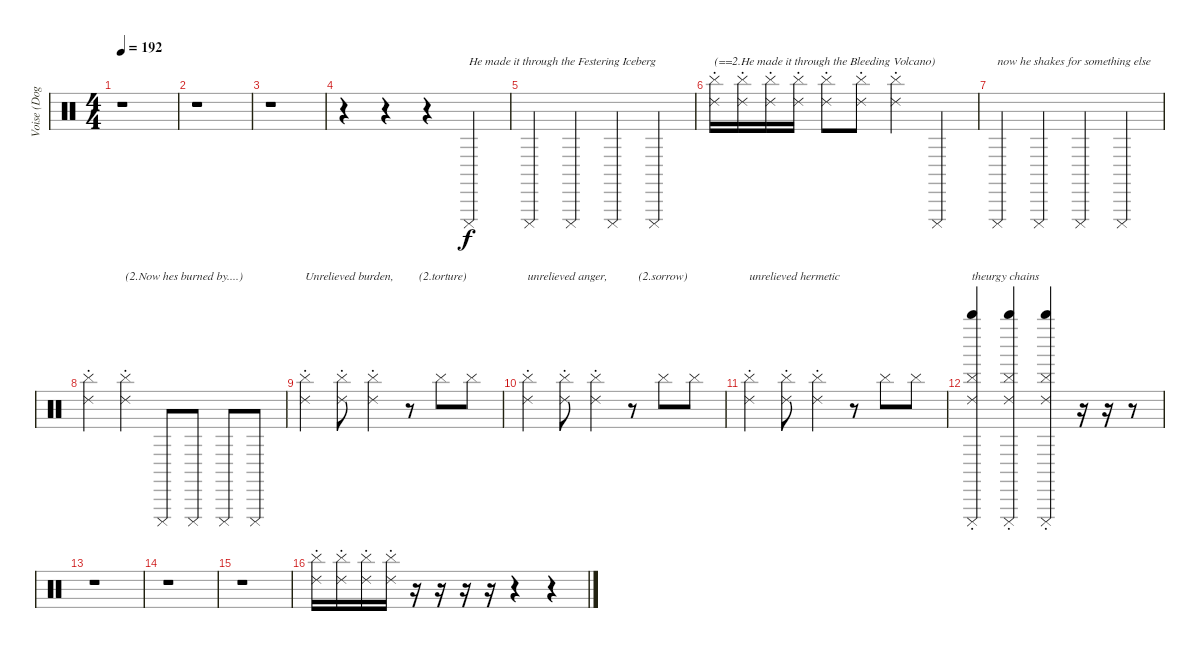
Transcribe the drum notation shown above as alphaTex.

\track ("Voise (Dog)" "Voise (Dog") {instrument percussion}
\staff {score}
\articulation defaults
\ts (4 4)
\tempo 192
\clef neutral
\ks c
r.1{dy f} |
r.1 |
r.1 |
r.4 r.4 r.4 "Cuica (mute)".4{txt "He made it through the Festering Iceberg"} |
"Cuica (mute)".4 "Cuica (mute)".4 "Cuica (mute)".4 "Cuica (mute)".4 |
("Ride (choke) 2" "Cymbal (hit)").16{txt "(==2.He made it through the Bleeding Volcano)"} ("Ride (choke) 2" "Cymbal (hit)").16 ("Ride (choke) 2" "Cymbal (hit)").16 ("Ride (choke) 2" "Cymbal (hit)").16 ("Ride (choke) 2" "Cymbal (hit)").8 ("Ride (choke) 2" "Cymbal (hit)").8 ("Ride (choke) 2" "Cymbal (hit)").4 "Cuica (mute)".4 |
"Cuica (mute)".4{txt "now he shakes for something else"} "Cuica (mute)".4 "Cuica (mute)".4 "Cuica (mute)".4 |
("Ride (choke) 2" "Cymbal (hit)").4 ("Ride (choke) 2" "Cymbal (hit)").4{txt "(2.Now hes burned by....)"} "Cuica (mute)".8 "Cuica (mute)".8 "Cuica (mute)".8 "Cuica (mute)".8 |
("Ride (choke) 2" "Cymbal (hit)").4{txt "Unrelieved burden, "} ("Ride (choke) 2" "Cymbal (hit)").8 ("Ride (choke) 2" "Cymbal (hit)").4 r.8{txt "   (2.torture)"} "Cymbal (hit)".8 "Cymbal (hit)".8 |
("Ride (choke) 2" "Cymbal (hit)").4{txt "unrelieved anger, "} ("Ride (choke) 2" "Cymbal (hit)").8 ("Ride (choke) 2" "Cymbal (hit)").4 r.8{txt "  (2.sorrow)"} "Cymbal (hit)".8 "Cymbal (hit)".8 |
("Ride (choke) 2" "Cymbal (hit)").4{txt "unrelieved hermetic"} ("Ride (choke) 2" "Cymbal (hit)").8 ("Ride (choke) 2" "Cymbal (hit)").4 r.8 "Cymbal (hit)".8 "Cymbal (hit)".8 |
("Cuica (mute)" "Whistle high (hit)" "Ride (choke) 2" "Cymbal (hit)").4{txt "theurgy chains"} ("Cuica (mute)" "Whistle high (hit)" "Ride (choke) 2" "Cymbal (hit)").4 ("Cuica (mute)" "Whistle high (hit)" "Ride (choke) 2" "Cymbal (hit)").4 r.16 r.16 r.8 |
r.1 |
r.1 |
r.1 |
("Ride (choke) 2" "Cymbal (hit)").16 ("Ride (choke) 2" "Cymbal (hit)").16 ("Ride (choke) 2" "Cymbal (hit)").16 ("Ride (choke) 2" "Cymbal (hit)").16 r.16 r.16 r.16 r.16 r.4 r.4
